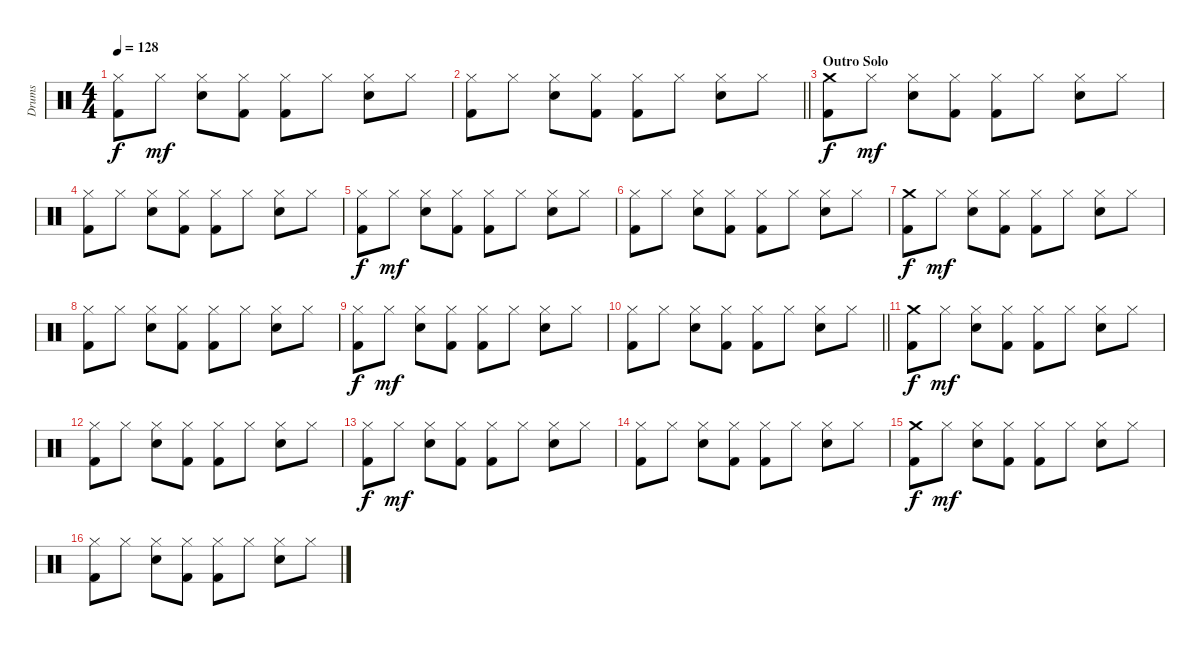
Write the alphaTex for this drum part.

\track ("Drums" "Drums") {instrument percussion}
\staff {score}
\articulation defaults
\ts (4 4)
\tempo 128
\clef neutral
\ks c
("Hi-Hat (closed)" "Kick (hit) 2").8{dy f} "Hi-Hat (closed)".8{dy mf} ("Hi-Hat (closed)" "Snare (hit) 2").8 ("Hi-Hat (closed)" "Kick (hit) 2").8 ("Hi-Hat (closed)" "Kick (hit) 2").8 "Hi-Hat (closed)".8 ("Hi-Hat (closed)" "Snare (hit) 2").8 "Hi-Hat (closed)".8 |
\barLineRight lightlight
("Hi-Hat (closed)" "Kick (hit) 2").8 "Hi-Hat (closed)".8 ("Hi-Hat (closed)" "Snare (hit) 2").8 ("Hi-Hat (closed)" "Kick (hit) 2").8 ("Hi-Hat (closed)" "Kick (hit) 2").8 "Hi-Hat (closed)".8 ("Hi-Hat (closed)" "Snare (hit) 2").8 "Hi-Hat (closed)".8 |
\section ("" "Outro Solo")
("Crash medium (hit)" "Kick (hit) 2").8{dy f} "Hi-Hat (closed)".8{dy mf} ("Hi-Hat (closed)" "Snare (hit) 2").8 ("Hi-Hat (closed)" "Kick (hit) 2").8 ("Hi-Hat (closed)" "Kick (hit) 2").8 "Hi-Hat (closed)".8 ("Hi-Hat (closed)" "Snare (hit) 2").8 "Hi-Hat (closed)".8 |
("Hi-Hat (closed)" "Kick (hit) 2").8 "Hi-Hat (closed)".8 ("Hi-Hat (closed)" "Snare (hit) 2").8 ("Hi-Hat (closed)" "Kick (hit) 2").8 ("Hi-Hat (closed)" "Kick (hit) 2").8 "Hi-Hat (closed)".8 ("Hi-Hat (closed)" "Snare (hit) 2").8 "Hi-Hat (closed)".8 |
("Hi-Hat (closed)" "Kick (hit) 2").8{dy f} "Hi-Hat (closed)".8{dy mf} ("Hi-Hat (closed)" "Snare (hit) 2").8 ("Hi-Hat (closed)" "Kick (hit) 2").8 ("Hi-Hat (closed)" "Kick (hit) 2").8 "Hi-Hat (closed)".8 ("Hi-Hat (closed)" "Snare (hit) 2").8 "Hi-Hat (closed)".8 |
("Hi-Hat (closed)" "Kick (hit) 2").8 "Hi-Hat (closed)".8 ("Hi-Hat (closed)" "Snare (hit) 2").8 ("Hi-Hat (closed)" "Kick (hit) 2").8 ("Hi-Hat (closed)" "Kick (hit) 2").8 "Hi-Hat (closed)".8 ("Hi-Hat (closed)" "Snare (hit) 2").8 "Hi-Hat (closed)".8 |
("Crash medium (hit)" "Kick (hit) 2").8{dy f} "Hi-Hat (closed)".8{dy mf} ("Hi-Hat (closed)" "Snare (hit) 2").8 ("Hi-Hat (closed)" "Kick (hit) 2").8 ("Hi-Hat (closed)" "Kick (hit) 2").8 "Hi-Hat (closed)".8 ("Hi-Hat (closed)" "Snare (hit) 2").8 "Hi-Hat (closed)".8 |
("Hi-Hat (closed)" "Kick (hit) 2").8 "Hi-Hat (closed)".8 ("Hi-Hat (closed)" "Snare (hit) 2").8 ("Hi-Hat (closed)" "Kick (hit) 2").8 ("Hi-Hat (closed)" "Kick (hit) 2").8 "Hi-Hat (closed)".8 ("Hi-Hat (closed)" "Snare (hit) 2").8 "Hi-Hat (closed)".8 |
("Hi-Hat (closed)" "Kick (hit) 2").8{dy f} "Hi-Hat (closed)".8{dy mf} ("Hi-Hat (closed)" "Snare (hit) 2").8 ("Hi-Hat (closed)" "Kick (hit) 2").8 ("Hi-Hat (closed)" "Kick (hit) 2").8 "Hi-Hat (closed)".8 ("Hi-Hat (closed)" "Snare (hit) 2").8 "Hi-Hat (closed)".8 |
\barLineRight lightlight
("Hi-Hat (closed)" "Kick (hit) 2").8 "Hi-Hat (closed)".8 ("Hi-Hat (closed)" "Snare (hit) 2").8 ("Hi-Hat (closed)" "Kick (hit) 2").8 ("Hi-Hat (closed)" "Kick (hit) 2").8 "Hi-Hat (closed)".8 ("Hi-Hat (closed)" "Snare (hit) 2").8 "Hi-Hat (closed)".8 |
("Crash medium (hit)" "Kick (hit) 2").8{dy f} "Hi-Hat (closed)".8{dy mf} ("Hi-Hat (closed)" "Snare (hit) 2").8 ("Hi-Hat (closed)" "Kick (hit) 2").8 ("Hi-Hat (closed)" "Kick (hit) 2").8 "Hi-Hat (closed)".8 ("Hi-Hat (closed)" "Snare (hit) 2").8 "Hi-Hat (closed)".8 |
("Hi-Hat (closed)" "Kick (hit) 2").8 "Hi-Hat (closed)".8 ("Hi-Hat (closed)" "Snare (hit) 2").8 ("Hi-Hat (closed)" "Kick (hit) 2").8 ("Hi-Hat (closed)" "Kick (hit) 2").8 "Hi-Hat (closed)".8 ("Hi-Hat (closed)" "Snare (hit) 2").8 "Hi-Hat (closed)".8 |
("Hi-Hat (closed)" "Kick (hit) 2").8{dy f} "Hi-Hat (closed)".8{dy mf} ("Hi-Hat (closed)" "Snare (hit) 2").8 ("Hi-Hat (closed)" "Kick (hit) 2").8 ("Hi-Hat (closed)" "Kick (hit) 2").8 "Hi-Hat (closed)".8 ("Hi-Hat (closed)" "Snare (hit) 2").8 "Hi-Hat (closed)".8 |
("Hi-Hat (closed)" "Kick (hit) 2").8 "Hi-Hat (closed)".8 ("Hi-Hat (closed)" "Snare (hit) 2").8 ("Hi-Hat (closed)" "Kick (hit) 2").8 ("Hi-Hat (closed)" "Kick (hit) 2").8 "Hi-Hat (closed)".8 ("Hi-Hat (closed)" "Snare (hit) 2").8 "Hi-Hat (closed)".8 |
("Crash medium (hit)" "Kick (hit) 2").8{dy f} "Hi-Hat (closed)".8{dy mf} ("Hi-Hat (closed)" "Snare (hit) 2").8 ("Hi-Hat (closed)" "Kick (hit) 2").8 ("Hi-Hat (closed)" "Kick (hit) 2").8 "Hi-Hat (closed)".8 ("Hi-Hat (closed)" "Snare (hit) 2").8 "Hi-Hat (closed)".8 |
("Hi-Hat (closed)" "Kick (hit) 2").8 "Hi-Hat (closed)".8 ("Hi-Hat (closed)" "Snare (hit) 2").8 ("Hi-Hat (closed)" "Kick (hit) 2").8 ("Hi-Hat (closed)" "Kick (hit) 2").8 "Hi-Hat (closed)".8 ("Hi-Hat (closed)" "Snare (hit) 2").8 "Hi-Hat (closed)".8
